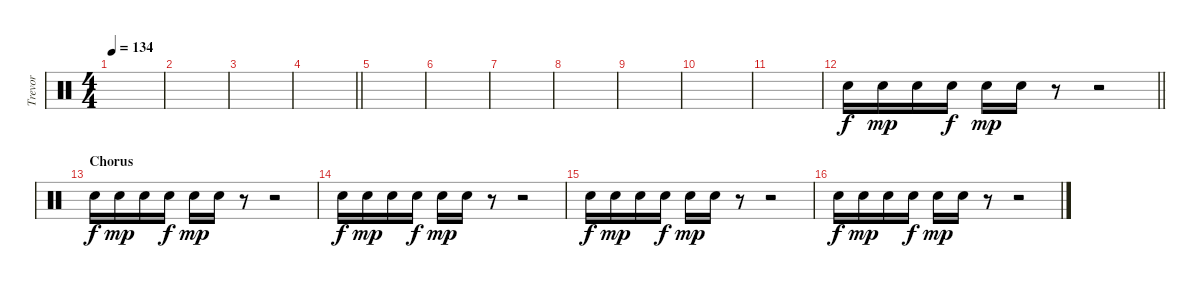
\track ("Trevor" "Trevor") {instrument percussion}
\staff {score}
\articulation defaults
\ts (4 4)
\section ("" "")
\tempo 134
\clef neutral
\ks c
|
|
|
\barLineRight lightlight
|
\section ("" "")
|
|
|
|
|
|
|
\barLineRight lightlight "Snare (hit) 2".16{dy f} "Snare (hit) 2".16{dy mp} "Snare (hit) 2".16 "Snare (hit) 2".16{dy f} "Snare (hit) 2".16{dy mp} "Snare (hit) 2".16
r.8 r.2 |
\section ("" "Chorus")
"Snare (hit) 2".16{dy f} "Snare (hit) 2".16{dy mp} "Snare (hit) 2".16 "Snare (hit) 2".16{dy f} "Snare (hit) 2".16{dy mp} "Snare (hit) 2".16 r.8 r.2 |
"Snare (hit) 2".16{dy f} "Snare (hit) 2".16{dy mp} "Snare (hit) 2".16 "Snare (hit) 2".16{dy f} "Snare (hit) 2".16{dy mp} "Snare (hit) 2".16 r.8 r.2 |
"Snare (hit) 2".16{dy f} "Snare (hit) 2".16{dy mp} "Snare (hit) 2".16 "Snare (hit) 2".16{dy f} "Snare (hit) 2".16{dy mp} "Snare (hit) 2".16 r.8 r.2 |
"Snare (hit) 2".16{dy f} "Snare (hit) 2".16{dy mp} "Snare (hit) 2".16 "Snare (hit) 2".16{dy f} "Snare (hit) 2".16{dy mp} "Snare (hit) 2".16 r.8 r.2
